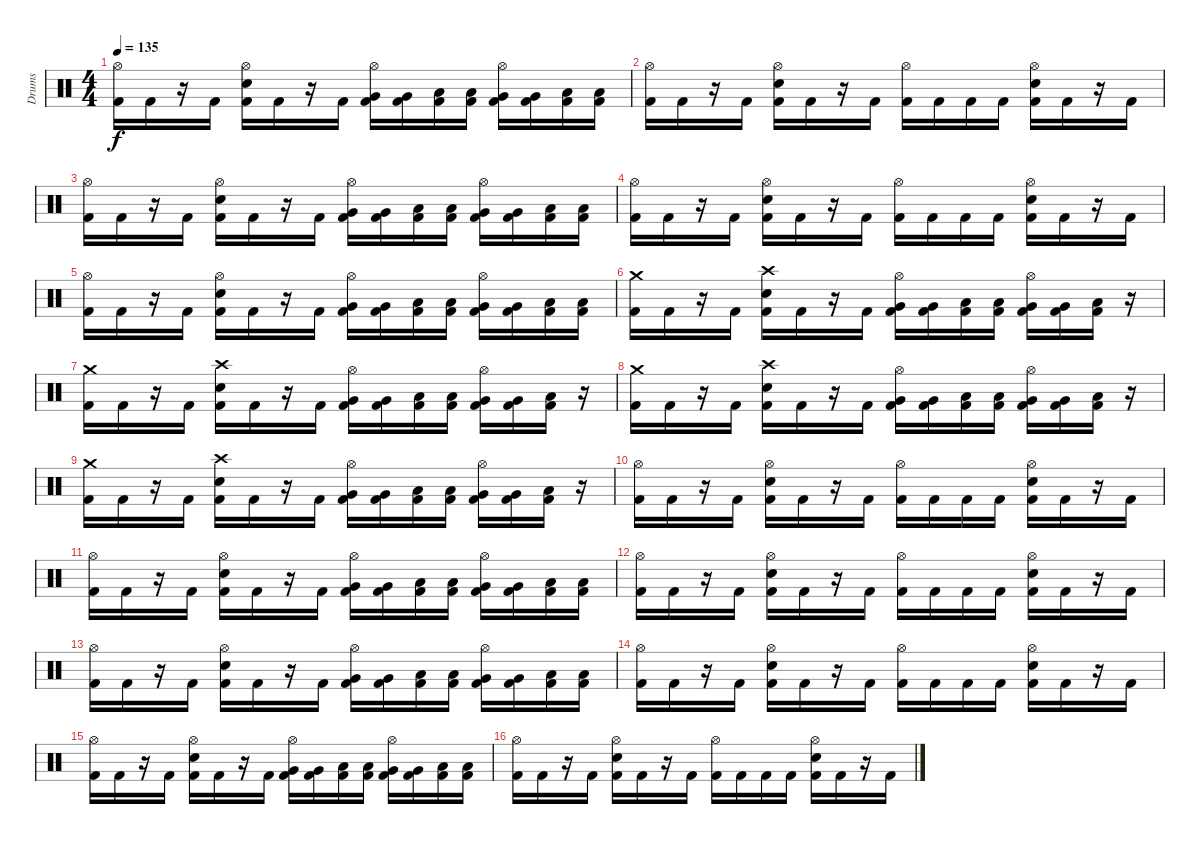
\track ("Drums" "Drums") {instrument percussion}
\staff {score}
\articulation defaults
\ts (4 4)
\tempo 135
\clef neutral
\ks c
("Hi-Hat (open)" "Kick (hit) 2").16{dy f} "Kick (hit) 2".16 r.16 "Kick (hit) 2".16 ("Hi-Hat (open)" "Electric Snare (hit)" "Kick (hit) 2").16 "Kick (hit) 2".16 r.16 "Kick (hit) 2".16 ("Hi-Hat (open)" "Very Low Tom (hit)" "Kick (hit) 2").16 ("Very Low Tom (hit)" "Kick (hit) 2").16 ("Low Floor Tom (hit)" "Kick (hit) 2").16 ("Low Floor Tom (hit)" "Kick (hit) 2").16 ("Hi-Hat (open)" "Very Low Tom (hit)" "Kick (hit) 2").16 ("Very Low Tom (hit)" "Kick (hit) 2").16 ("Low Floor Tom (hit)" "Kick (hit) 2").16 ("Low Floor Tom (hit)" "Kick (hit) 2").16 |
("Hi-Hat (open)" "Kick (hit) 2").16 "Kick (hit) 2".16 r.16 "Kick (hit) 2".16 ("Hi-Hat (open)" "Electric Snare (hit)" "Kick (hit) 2").16 "Kick (hit) 2".16 r.16 "Kick (hit) 2".16 ("Hi-Hat (open)" "Kick (hit) 2").16 "Kick (hit) 2".16 "Kick (hit) 2".16 "Kick (hit) 2".16 ("Hi-Hat (open)" "Electric Snare (hit)" "Kick (hit) 2").16 "Kick (hit) 2".16 r.16 "Kick (hit) 2".16 |
("Hi-Hat (open)" "Kick (hit) 2").16 "Kick (hit) 2".16 r.16 "Kick (hit) 2".16 ("Hi-Hat (open)" "Electric Snare (hit)" "Kick (hit) 2").16 "Kick (hit) 2".16 r.16 "Kick (hit) 2".16 ("Hi-Hat (open)" "Very Low Tom (hit)" "Kick (hit) 2").16 ("Very Low Tom (hit)" "Kick (hit) 2").16 ("Low Floor Tom (hit)" "Kick (hit) 2").16 ("Low Floor Tom (hit)" "Kick (hit) 2").16 ("Hi-Hat (open)" "Very Low Tom (hit)" "Kick (hit) 2").16 ("Very Low Tom (hit)" "Kick (hit) 2").16 ("Low Floor Tom (hit)" "Kick (hit) 2").16 ("Low Floor Tom (hit)" "Kick (hit) 2").16 |
("Hi-Hat (open)" "Kick (hit) 2").16 "Kick (hit) 2".16 r.16 "Kick (hit) 2".16 ("Hi-Hat (open)" "Electric Snare (hit)" "Kick (hit) 2").16 "Kick (hit) 2".16 r.16 "Kick (hit) 2".16 ("Hi-Hat (open)" "Kick (hit) 2").16 "Kick (hit) 2".16 "Kick (hit) 2".16 "Kick (hit) 2".16 ("Hi-Hat (open)" "Electric Snare (hit)" "Kick (hit) 2").16 "Kick (hit) 2".16 r.16 "Kick (hit) 2".16 |
("Hi-Hat (open)" "Kick (hit) 2").16 "Kick (hit) 2".16 r.16 "Kick (hit) 2".16 ("Hi-Hat (open)" "Electric Snare (hit)" "Kick (hit) 2").16 "Kick (hit) 2".16 r.16 "Kick (hit) 2".16 ("Hi-Hat (open)" "Very Low Tom (hit)" "Kick (hit) 2").16 ("Very Low Tom (hit)" "Kick (hit) 2").16 ("Low Floor Tom (hit)" "Kick (hit) 2").16 ("Low Floor Tom (hit)" "Kick (hit) 2").16 ("Hi-Hat (open)" "Very Low Tom (hit)" "Kick (hit) 2").16 ("Very Low Tom (hit)" "Kick (hit) 2").16 ("Low Floor Tom (hit)" "Kick (hit) 2").16 ("Low Floor Tom (hit)" "Kick (hit) 2").16 |
("Crash medium (hit)" "Kick (hit) 2").16 "Kick (hit) 2".16 r.16 "Kick (hit) 2".16 ("Crash high (hit)" "Electric Snare (hit)" "Kick (hit) 2").16 "Kick (hit) 2".16 r.16 "Kick (hit) 2".16 ("Hi-Hat (open)" "Very Low Tom (hit)" "Kick (hit) 2").16 ("Very Low Tom (hit)" "Kick (hit) 2").16 ("Low Floor Tom (hit)" "Kick (hit) 2").16 ("Low Floor Tom (hit)" "Kick (hit) 2").16 ("Hi-Hat (open)" "Very Low Tom (hit)" "Kick (hit) 2").16 ("Very Low Tom (hit)" "Kick (hit) 2").16 ("Low Floor Tom (hit)" "Kick (hit) 2").16 r.16 |
("Crash medium (hit)" "Kick (hit) 2").16 "Kick (hit) 2".16 r.16 "Kick (hit) 2".16 ("Crash high (hit)" "Electric Snare (hit)" "Kick (hit) 2").16 "Kick (hit) 2".16 r.16 "Kick (hit) 2".16 ("Hi-Hat (open)" "Very Low Tom (hit)" "Kick (hit) 2").16 ("Very Low Tom (hit)" "Kick (hit) 2").16 ("Low Floor Tom (hit)" "Kick (hit) 2").16 ("Low Floor Tom (hit)" "Kick (hit) 2").16 ("Hi-Hat (open)" "Very Low Tom (hit)" "Kick (hit) 2").16 ("Very Low Tom (hit)" "Kick (hit) 2").16 ("Low Floor Tom (hit)" "Kick (hit) 2").16 r.16 |
("Crash medium (hit)" "Kick (hit) 2").16 "Kick (hit) 2".16 r.16 "Kick (hit) 2".16 ("Crash high (hit)" "Electric Snare (hit)" "Kick (hit) 2").16 "Kick (hit) 2".16 r.16 "Kick (hit) 2".16 ("Hi-Hat (open)" "Very Low Tom (hit)" "Kick (hit) 2").16 ("Very Low Tom (hit)" "Kick (hit) 2").16 ("Low Floor Tom (hit)" "Kick (hit) 2").16 ("Low Floor Tom (hit)" "Kick (hit) 2").16 ("Hi-Hat (open)" "Very Low Tom (hit)" "Kick (hit) 2").16 ("Very Low Tom (hit)" "Kick (hit) 2").16 ("Low Floor Tom (hit)" "Kick (hit) 2").16 r.16 |
("Crash medium (hit)" "Kick (hit) 2").16 "Kick (hit) 2".16 r.16 "Kick (hit) 2".16 ("Crash high (hit)" "Electric Snare (hit)" "Kick (hit) 2").16 "Kick (hit) 2".16 r.16 "Kick (hit) 2".16 ("Hi-Hat (open)" "Very Low Tom (hit)" "Kick (hit) 2").16 ("Very Low Tom (hit)" "Kick (hit) 2").16 ("Low Floor Tom (hit)" "Kick (hit) 2").16 ("Low Floor Tom (hit)" "Kick (hit) 2").16 ("Hi-Hat (open)" "Very Low Tom (hit)" "Kick (hit) 2").16 ("Very Low Tom (hit)" "Kick (hit) 2").16 ("Low Floor Tom (hit)" "Kick (hit) 2").16 r.16 |
("Hi-Hat (open)" "Kick (hit) 2").16 "Kick (hit) 2".16 r.16 "Kick (hit) 2".16 ("Hi-Hat (open)" "Electric Snare (hit)" "Kick (hit) 2").16 "Kick (hit) 2".16 r.16 "Kick (hit) 2".16 ("Hi-Hat (open)" "Kick (hit) 2").16 "Kick (hit) 2".16 "Kick (hit) 2".16 "Kick (hit) 2".16 ("Hi-Hat (open)" "Electric Snare (hit)" "Kick (hit) 2").16 "Kick (hit) 2".16 r.16 "Kick (hit) 2".16 |
("Hi-Hat (open)" "Kick (hit) 2").16 "Kick (hit) 2".16 r.16 "Kick (hit) 2".16 ("Hi-Hat (open)" "Electric Snare (hit)" "Kick (hit) 2").16 "Kick (hit) 2".16 r.16 "Kick (hit) 2".16 ("Hi-Hat (open)" "Very Low Tom (hit)" "Kick (hit) 2").16 ("Very Low Tom (hit)" "Kick (hit) 2").16 ("Low Floor Tom (hit)" "Kick (hit) 2").16 ("Low Floor Tom (hit)" "Kick (hit) 2").16 ("Hi-Hat (open)" "Very Low Tom (hit)" "Kick (hit) 2").16 ("Very Low Tom (hit)" "Kick (hit) 2").16 ("Low Floor Tom (hit)" "Kick (hit) 2").16 ("Low Floor Tom (hit)" "Kick (hit) 2").16 |
("Hi-Hat (open)" "Kick (hit) 2").16 "Kick (hit) 2".16 r.16 "Kick (hit) 2".16 ("Hi-Hat (open)" "Electric Snare (hit)" "Kick (hit) 2").16 "Kick (hit) 2".16 r.16 "Kick (hit) 2".16 ("Hi-Hat (open)" "Kick (hit) 2").16 "Kick (hit) 2".16 "Kick (hit) 2".16 "Kick (hit) 2".16 ("Hi-Hat (open)" "Electric Snare (hit)" "Kick (hit) 2").16 "Kick (hit) 2".16 r.16 "Kick (hit) 2".16 |
("Hi-Hat (open)" "Kick (hit) 2").16 "Kick (hit) 2".16 r.16 "Kick (hit) 2".16 ("Hi-Hat (open)" "Electric Snare (hit)" "Kick (hit) 2").16 "Kick (hit) 2".16 r.16 "Kick (hit) 2".16 ("Hi-Hat (open)" "Very Low Tom (hit)" "Kick (hit) 2").16 ("Very Low Tom (hit)" "Kick (hit) 2").16 ("Low Floor Tom (hit)" "Kick (hit) 2").16 ("Low Floor Tom (hit)" "Kick (hit) 2").16 ("Hi-Hat (open)" "Very Low Tom (hit)" "Kick (hit) 2").16 ("Very Low Tom (hit)" "Kick (hit) 2").16 ("Low Floor Tom (hit)" "Kick (hit) 2").16 ("Low Floor Tom (hit)" "Kick (hit) 2").16 |
("Hi-Hat (open)" "Kick (hit) 2").16 "Kick (hit) 2".16 r.16 "Kick (hit) 2".16 ("Hi-Hat (open)" "Electric Snare (hit)" "Kick (hit) 2").16 "Kick (hit) 2".16 r.16 "Kick (hit) 2".16 ("Hi-Hat (open)" "Kick (hit) 2").16 "Kick (hit) 2".16 "Kick (hit) 2".16 "Kick (hit) 2".16 ("Hi-Hat (open)" "Electric Snare (hit)" "Kick (hit) 2").16 "Kick (hit) 2".16 r.16 "Kick (hit) 2".16 |
("Hi-Hat (open)" "Kick (hit) 2").16 "Kick (hit) 2".16 r.16 "Kick (hit) 2".16 ("Hi-Hat (open)" "Electric Snare (hit)" "Kick (hit) 2").16 "Kick (hit) 2".16 r.16 "Kick (hit) 2".16 ("Hi-Hat (open)" "Very Low Tom (hit)" "Kick (hit) 2").16 ("Very Low Tom (hit)" "Kick (hit) 2").16 ("Low Floor Tom (hit)" "Kick (hit) 2").16 ("Low Floor Tom (hit)" "Kick (hit) 2").16 ("Hi-Hat (open)" "Very Low Tom (hit)" "Kick (hit) 2").16 ("Very Low Tom (hit)" "Kick (hit) 2").16 ("Low Floor Tom (hit)" "Kick (hit) 2").16 ("Low Floor Tom (hit)" "Kick (hit) 2").16 |
("Hi-Hat (open)" "Kick (hit) 2").16 "Kick (hit) 2".16 r.16 "Kick (hit) 2".16 ("Hi-Hat (open)" "Electric Snare (hit)" "Kick (hit) 2").16 "Kick (hit) 2".16 r.16 "Kick (hit) 2".16 ("Hi-Hat (open)" "Kick (hit) 2").16 "Kick (hit) 2".16 "Kick (hit) 2".16 "Kick (hit) 2".16 ("Hi-Hat (open)" "Electric Snare (hit)" "Kick (hit) 2").16 "Kick (hit) 2".16 r.16 "Kick (hit) 2".16
